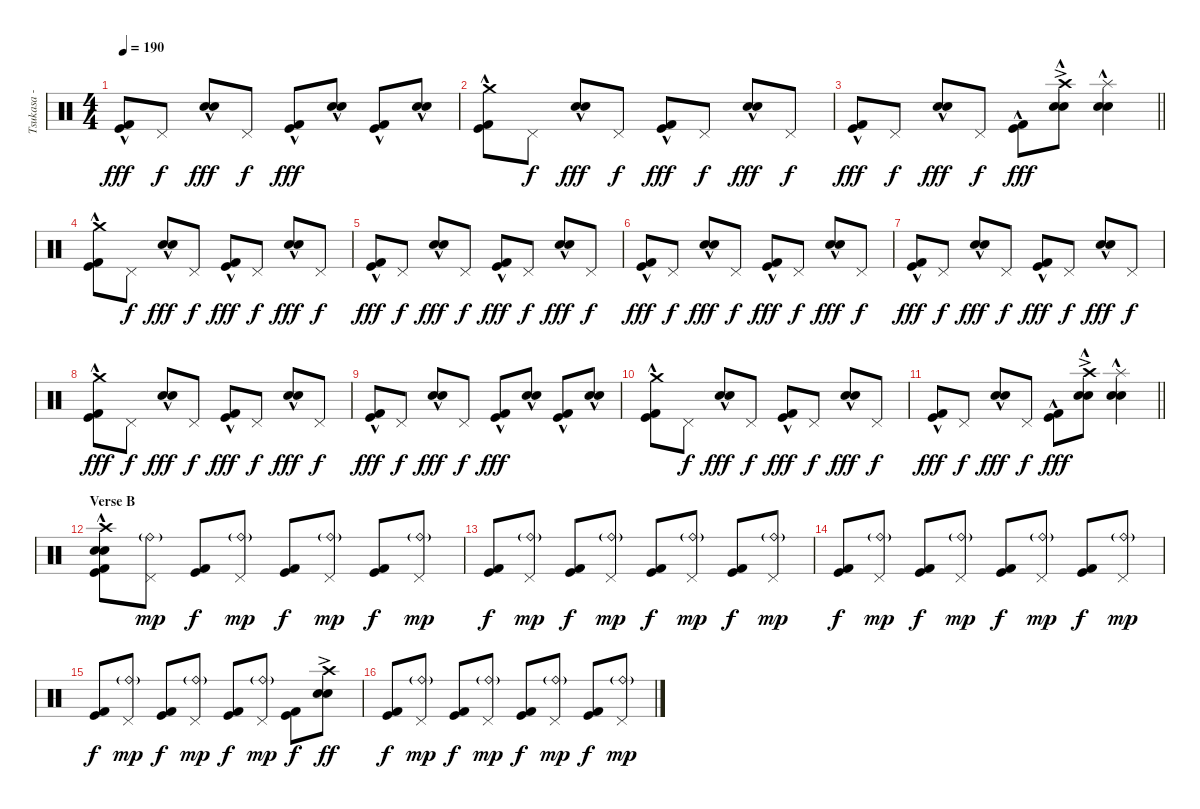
\track ("Tsukasa - Drums" "Tsukasa - ") {instrument percussion}
\staff {score}
\articulation defaults
\ts (4 4)
\tempo 190
\clef neutral
\ks c
("Kick (hit)"{hac} "Kick (hit) 2"{hac}).8{dy fff} "Pedal Hi-Hat (hit)".8{dy f} ("Electric Snare (hit)"{hac} "Snare (hit) 2"{hac}).8{dy fff} "Pedal Hi-Hat (hit)".8{dy f} ("Kick (hit)"{hac} "Kick (hit) 2"{hac}).8{dy fff} ("Electric Snare (hit)"{hac} "Snare (hit) 2"{hac}).8 ("Kick (hit)"{hac} "Kick (hit) 2"{hac}).8 ("Electric Snare (hit)"{hac} "Snare (hit) 2"{hac}).8 |
("Crash medium (hit)" "Kick (hit)"{hac} "Kick (hit) 2"{hac}).8 "Pedal Hi-Hat (hit)".8{dy f} ("Electric Snare (hit)"{hac} "Snare (hit) 2"{hac}).8{dy fff} "Pedal Hi-Hat (hit)".8{dy f} ("Kick (hit)"{hac} "Kick (hit) 2"{hac}).8{dy fff} "Pedal Hi-Hat (hit)".8{dy f} ("Electric Snare (hit)"{hac} "Snare (hit) 2").8{dy fff} "Pedal Hi-Hat (hit)".8{dy f} |
\barLineRight lightlight
("Kick (hit)"{hac} "Kick (hit) 2"{hac}).8{dy fff} "Pedal Hi-Hat (hit)".8{dy f} ("Electric Snare (hit)"{hac} "Snare (hit) 2").8{dy fff} "Pedal Hi-Hat (hit)".8{dy f} ("Kick (hit)"{hac} "Kick (hit) 2"{hac}).8{dy fff} ("Crash high (hit)"{ac} "Electric Snare (hit)"{hac} "Snare (hit) 2").8 ("Splash (hit)"{hac} "Electric Snare (hit)"{hac} "Snare (hit) 2").4 |
\section ("" "")
("Crash medium (hit)" "Kick (hit)"{hac} "Kick (hit) 2"{hac}).8 "Pedal Hi-Hat (hit)".8{dy f} ("Electric Snare (hit)"{hac} "Snare (hit) 2"{hac}).8{dy fff} "Pedal Hi-Hat (hit)".8{dy f} ("Kick (hit)"{hac} "Kick (hit) 2"{hac}).8{dy fff} "Pedal Hi-Hat (hit)".8{dy f} ("Electric Snare (hit)"{hac} "Snare (hit) 2").8{dy fff} "Pedal Hi-Hat (hit)".8{dy f} |
("Kick (hit)"{hac} "Kick (hit) 2"{hac}).8{dy fff} "Pedal Hi-Hat (hit)".8{dy f} ("Electric Snare (hit)"{hac} "Snare (hit) 2"{hac}).8{dy fff} "Pedal Hi-Hat (hit)".8{dy f} ("Kick (hit)"{hac} "Kick (hit) 2"{hac}).8{dy fff} "Pedal Hi-Hat (hit)".8{dy f} ("Electric Snare (hit)"{hac} "Snare (hit) 2").8{dy fff} "Pedal Hi-Hat (hit)".8{dy f} |
("Kick (hit)"{hac} "Kick (hit) 2"{hac}).8{dy fff} "Pedal Hi-Hat (hit)".8{dy f} ("Electric Snare (hit)"{hac} "Snare (hit) 2"{hac}).8{dy fff} "Pedal Hi-Hat (hit)".8{dy f} ("Kick (hit)"{hac} "Kick (hit) 2"{hac}).8{dy fff} "Pedal Hi-Hat (hit)".8{dy f} ("Electric Snare (hit)"{hac} "Snare (hit) 2").8{dy fff} "Pedal Hi-Hat (hit)".8{dy f} |
("Kick (hit)"{hac} "Kick (hit) 2"{hac}).8{dy fff} "Pedal Hi-Hat (hit)".8{dy f} ("Electric Snare (hit)"{hac} "Snare (hit) 2"{hac}).8{dy fff} "Pedal Hi-Hat (hit)".8{dy f} ("Kick (hit)"{hac} "Kick (hit) 2"{hac}).8{dy fff} "Pedal Hi-Hat (hit)".8{dy f} ("Electric Snare (hit)"{hac} "Snare (hit) 2").8{dy fff} "Pedal Hi-Hat (hit)".8{dy f} |
("Crash medium (hit)" "Kick (hit)"{hac} "Kick (hit) 2"{hac}).8{dy fff} "Pedal Hi-Hat (hit)".8{dy f} ("Electric Snare (hit)"{hac} "Snare (hit) 2"{hac}).8{dy fff} "Pedal Hi-Hat (hit)".8{dy f} ("Kick (hit)"{hac} "Kick (hit) 2"{hac}).8{dy fff} "Pedal Hi-Hat (hit)".8{dy f} ("Electric Snare (hit)"{hac} "Snare (hit) 2").8{dy fff} "Pedal Hi-Hat (hit)".8{dy f} |
("Kick (hit)"{hac} "Kick (hit) 2"{hac}).8{dy fff} "Pedal Hi-Hat (hit)".8{dy f} ("Electric Snare (hit)"{hac} "Snare (hit) 2"{hac}).8{dy fff} "Pedal Hi-Hat (hit)".8{dy f} ("Kick (hit)"{hac} "Kick (hit) 2"{hac}).8{dy fff} ("Electric Snare (hit)"{hac} "Snare (hit) 2"{hac}).8 ("Kick (hit)"{hac} "Kick (hit) 2"{hac}).8 ("Electric Snare (hit)"{hac} "Snare (hit) 2"{hac}).8 |
("Crash medium (hit)" "Kick (hit)"{hac} "Kick (hit) 2"{hac}).8 "Pedal Hi-Hat (hit)".8{dy f} ("Electric Snare (hit)"{hac} "Snare (hit) 2"{hac}).8{dy fff} "Pedal Hi-Hat (hit)".8{dy f} ("Kick (hit)"{hac} "Kick (hit) 2"{hac}).8{dy fff} "Pedal Hi-Hat (hit)".8{dy f} ("Electric Snare (hit)"{hac} "Snare (hit) 2").8{dy fff} "Pedal Hi-Hat (hit)".8{dy f} |
\barLineRight lightlight
("Kick (hit)"{hac} "Kick (hit) 2"{hac}).8{dy fff} "Pedal Hi-Hat (hit)".8{dy f} ("Electric Snare (hit)"{hac} "Snare (hit) 2").8{dy fff} "Pedal Hi-Hat (hit)".8{dy f} ("Kick (hit)"{hac} "Kick (hit) 2"{hac}).8{dy fff} ("Crash high (hit)"{ac} "Electric Snare (hit)"{hac} "Snare (hit) 2").8 ("Splash (hit)"{hac} "Electric Snare (hit)"{hac} "Snare (hit) 2").4 |
\section ("" "Verse B")
("Crash high (hit)" "Electric Snare (hit)"{hac} "Snare (hit) 2" "Kick (hit)" "Kick (hit) 2").8 ("Ride (bell)"{g} "Pedal Hi-Hat (hit)").8{dy mp} ("Kick (hit)" "Kick (hit) 2").8{dy f} ("Ride (bell)"{g} "Pedal Hi-Hat (hit)").8{dy mp} ("Kick (hit)" "Kick (hit) 2").8{dy f} ("Ride (bell)"{g} "Pedal Hi-Hat (hit)").8{dy mp} ("Kick (hit)" "Kick (hit) 2").8{dy f} ("Ride (bell)"{g} "Pedal Hi-Hat (hit)").8{dy mp} |
("Kick (hit)" "Kick (hit) 2").8{dy f} ("Ride (bell)"{g} "Pedal Hi-Hat (hit)").8{dy mp} ("Kick (hit)" "Kick (hit) 2").8{dy f} ("Ride (bell)"{g} "Pedal Hi-Hat (hit)").8{dy mp} ("Kick (hit)" "Kick (hit) 2").8{dy f} ("Ride (bell)"{g} "Pedal Hi-Hat (hit)").8{dy mp} ("Kick (hit)" "Kick (hit) 2").8{dy f} ("Ride (bell)"{g} "Pedal Hi-Hat (hit)").8{dy mp} |
("Kick (hit)" "Kick (hit) 2").8{dy f} ("Ride (bell)"{g} "Pedal Hi-Hat (hit)").8{dy mp} ("Kick (hit)" "Kick (hit) 2").8{dy f} ("Ride (bell)"{g} "Pedal Hi-Hat (hit)").8{dy mp} ("Kick (hit)" "Kick (hit) 2").8{dy f} ("Ride (bell)"{g} "Pedal Hi-Hat (hit)").8{dy mp} ("Kick (hit)" "Kick (hit) 2").8{dy f} ("Ride (bell)"{g} "Pedal Hi-Hat (hit)").8{dy mp} |
("Kick (hit)" "Kick (hit) 2").8{dy f} ("Ride (bell)"{g} "Pedal Hi-Hat (hit)").8{dy mp} ("Kick (hit)" "Kick (hit) 2").8{dy f} ("Ride (bell)"{g} "Pedal Hi-Hat (hit)").8{dy mp} ("Kick (hit)" "Kick (hit) 2").8{dy f} ("Ride (bell)"{g} "Pedal Hi-Hat (hit)").8{dy mp} ("Kick (hit)" "Kick (hit) 2").8{dy f} ("Crash high (hit)" "Electric Snare (hit)"{ac} "Snare (hit) 2").8{dy ff} |
("Kick (hit)" "Kick (hit) 2").8{dy f} ("Ride (bell)"{g} "Pedal Hi-Hat (hit)").8{dy mp} ("Kick (hit)" "Kick (hit) 2").8{dy f} ("Ride (bell)"{g} "Pedal Hi-Hat (hit)").8{dy mp} ("Kick (hit)" "Kick (hit) 2").8{dy f} ("Ride (bell)"{g} "Pedal Hi-Hat (hit)").8{dy mp} ("Kick (hit)" "Kick (hit) 2").8{dy f} ("Ride (bell)"{g} "Pedal Hi-Hat (hit)").8{dy mp}
